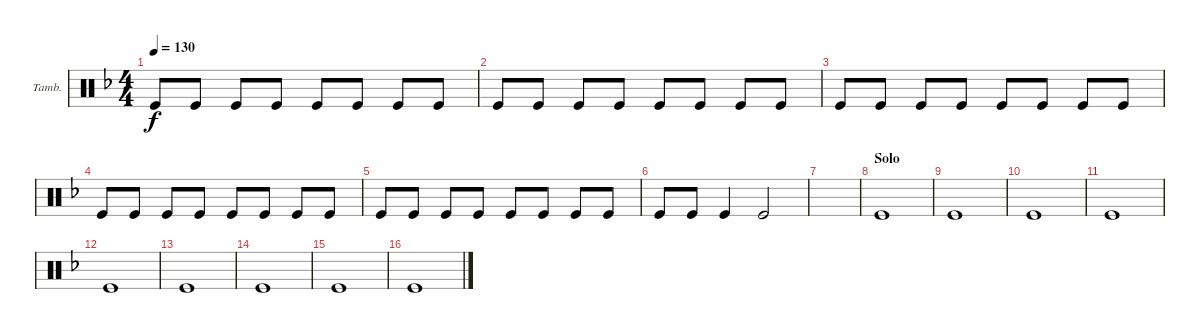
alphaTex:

\defaultSystemsLayout 4
\bracketExtendMode groupsimilarinstruments
\firstSystemTrackNameOrientation horizontal
\otherSystemsTrackNameOrientation horizontal
\track ("Tambourine" "Tamb.") {instrument percussion}
\staff {score}
\articulation defaults
\ts (4 4)
\tempo 130
\clef neutral
\ks dminor "Kick (hit)".8{dy f} "Kick (hit)".8 "Kick (hit)".8 "Kick (hit)".8 "Kick (hit)".8 "Kick (hit)".8 "Kick (hit)".8 "Kick (hit)".8
|
"Kick (hit)".8 "Kick (hit)".8 "Kick (hit)".8 "Kick (hit)".8 "Kick (hit)".8 "Kick (hit)".8 "Kick (hit)".8 "Kick (hit)".8 |
"Kick (hit)".8 "Kick (hit)".8 "Kick (hit)".8 "Kick (hit)".8 "Kick (hit)".8 "Kick (hit)".8 "Kick (hit)".8 "Kick (hit)".8 |
"Kick (hit)".8 "Kick (hit)".8 "Kick (hit)".8 "Kick (hit)".8 "Kick (hit)".8 "Kick (hit)".8 "Kick (hit)".8 "Kick (hit)".8 |
"Kick (hit)".8 "Kick (hit)".8 "Kick (hit)".8 "Kick (hit)".8 "Kick (hit)".8 "Kick (hit)".8 "Kick (hit)".8 "Kick (hit)".8 |
"Kick (hit)".8 "Kick (hit)".8 "Kick (hit)".4 "Kick (hit)".2 |
|
\section ("" "Solo")
"Kick (hit)".1 |
"Kick (hit)".1 |
"Kick (hit)".1 |
"Kick (hit)".1 |
"Kick (hit)".1 |
"Kick (hit)".1 |
"Kick (hit)".1 |
"Kick (hit)".1 |
"Kick (hit)".1
